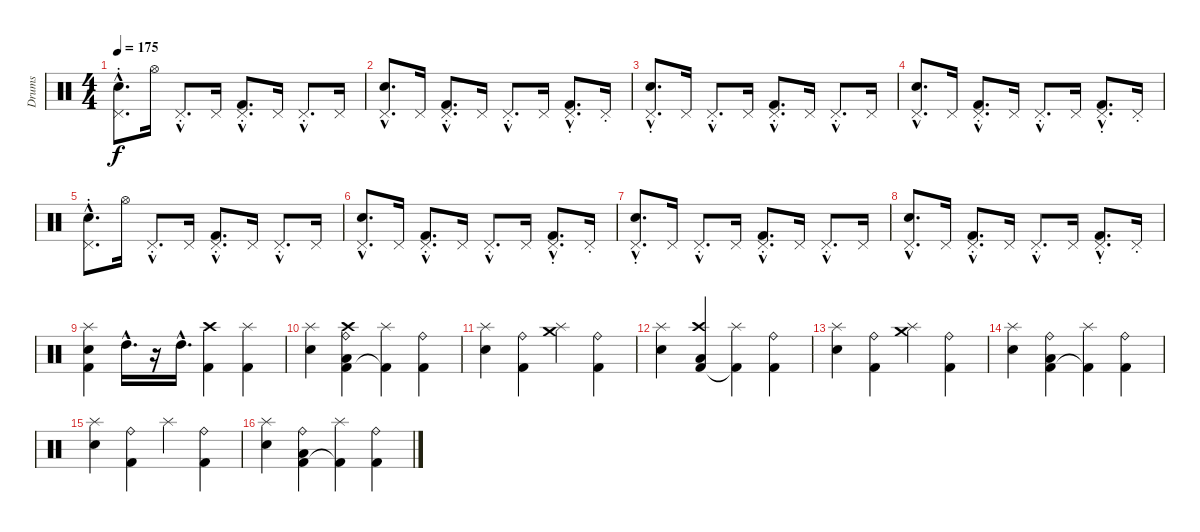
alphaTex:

\track ("Drums" "Drums") {instrument percussion}
\staff {score}
\articulation defaults
\ts (4 4)
\tempo 175
\clef neutral
\ks c
("Electric Snare (hit)"{hac} "Pedal Hi-Hat (hit)"{hac st}).8{d dy f} "Hi-Hat (open)".16 "Pedal Hi-Hat (hit)"{hac st}.8{d} "Pedal Hi-Hat (hit)".16 ("Pedal Hi-Hat (hit)"{hac st} "Kick (hit) 2"{hac}).8{d} "Pedal Hi-Hat (hit)".16 "Pedal Hi-Hat (hit)"{hac st}.8{d} "Pedal Hi-Hat (hit)".16 |
("Electric Snare (hit)"{hac} "Pedal Hi-Hat (hit)"{hac}).8{d} "Pedal Hi-Hat (hit)".16 ("Pedal Hi-Hat (hit)"{hac st} "Kick (hit) 2"{hac}).8{d} "Pedal Hi-Hat (hit)".16 "Pedal Hi-Hat (hit)"{hac st}.8{d} "Pedal Hi-Hat (hit)".16 ("Kick (hit) 2"{hac} "Pedal Hi-Hat (hit)"{hac st}).8{d} "Pedal Hi-Hat (hit)"{st}.16 |
("Electric Snare (hit)"{hac} "Pedal Hi-Hat (hit)"{hac st}).8{d} "Pedal Hi-Hat (hit)".16 "Pedal Hi-Hat (hit)"{hac st}.8{d} "Pedal Hi-Hat (hit)".16 ("Pedal Hi-Hat (hit)"{hac st} "Kick (hit) 2"{hac}).8{d} "Pedal Hi-Hat (hit)".16 "Pedal Hi-Hat (hit)"{hac st}.8{d} "Pedal Hi-Hat (hit)".16 |
("Electric Snare (hit)"{hac} "Pedal Hi-Hat (hit)"{hac}).8{d} "Pedal Hi-Hat (hit)".16 ("Pedal Hi-Hat (hit)"{hac st} "Kick (hit) 2"{hac}).8{d} "Pedal Hi-Hat (hit)".16 "Pedal Hi-Hat (hit)"{hac st}.8{d} "Pedal Hi-Hat (hit)".16 ("Kick (hit) 2"{hac} "Pedal Hi-Hat (hit)"{hac st}).8{d} "Pedal Hi-Hat (hit)"{st}.16 |
("Electric Snare (hit)"{hac} "Pedal Hi-Hat (hit)"{hac st}).8{d} "Hi-Hat (open)".16 "Pedal Hi-Hat (hit)"{hac st}.8{d} "Pedal Hi-Hat (hit)".16 ("Pedal Hi-Hat (hit)"{hac st} "Kick (hit) 2"{hac}).8{d} "Pedal Hi-Hat (hit)".16 "Pedal Hi-Hat (hit)"{hac st}.8{d} "Pedal Hi-Hat (hit)".16 |
("Electric Snare (hit)"{hac} "Pedal Hi-Hat (hit)"{hac}).8{d} "Pedal Hi-Hat (hit)".16 ("Pedal Hi-Hat (hit)"{hac st} "Kick (hit) 2"{hac}).8{d} "Pedal Hi-Hat (hit)".16 "Pedal Hi-Hat (hit)"{hac st}.8{d} "Pedal Hi-Hat (hit)".16 ("Kick (hit) 2"{hac} "Pedal Hi-Hat (hit)"{hac st}).8{d} "Pedal Hi-Hat (hit)"{st}.16 |
("Electric Snare (hit)"{hac} "Pedal Hi-Hat (hit)"{hac st}).8{d} "Pedal Hi-Hat (hit)".16 "Pedal Hi-Hat (hit)"{hac st}.8{d} "Pedal Hi-Hat (hit)".16 ("Pedal Hi-Hat (hit)"{hac st} "Kick (hit) 2"{hac}).8{d} "Pedal Hi-Hat (hit)".16 "Pedal Hi-Hat (hit)"{hac st}.8{d} "Pedal Hi-Hat (hit)".16 |
("Electric Snare (hit)"{hac} "Pedal Hi-Hat (hit)"{hac}).8{d} "Pedal Hi-Hat (hit)".16 ("Pedal Hi-Hat (hit)"{hac st} "Kick (hit) 2"{hac}).8{d} "Pedal Hi-Hat (hit)".16 "Pedal Hi-Hat (hit)"{hac st}.8{d} "Pedal Hi-Hat (hit)".16 ("Kick (hit) 2"{hac} "Pedal Hi-Hat (hit)"{hac st}).8{d} "Pedal Hi-Hat (hit)"{st}.16 |
("Electric Snare (hit)" "Splash (hit)" "Kick (hit) 2").4 "High Tom (hit)"{hac}.16{d} r.16 "High Tom (hit)"{hac}.16{d} ("Kick (hit) 2" "Crash high (hit)").4 ("Kick (hit) 2" "Splash (hit)").4 |
("Electric Snare (hit)" "Splash (hit)").4 ("Kick (hit) 2" "Low Tom (hit)" "Ride (bell)" "Crash high (hit)").4 ("Kick (hit) 2"{t} "Splash (hit)").4 ("Kick (hit) 2" "Ride (bell)").4 |
("Electric Snare (hit)" "Splash (hit)").4 ("Kick (hit) 2" "Ride (bell)").4 ("Crash medium (hit)" "Splash (hit)").4 ("Kick (hit) 2" "Ride (bell)").4 |
("Electric Snare (hit)" "Splash (hit)").4 ("Kick (hit) 2" "Low Tom (hit)" "Crash high (hit)").4 ("Kick (hit) 2"{t} "Splash (hit)").4 ("Kick (hit) 2" "Ride (bell)").4 |
("Electric Snare (hit)" "Splash (hit)").4 ("Kick (hit) 2" "Ride (bell)").4 ("Crash medium (hit)" "Splash (hit)").4 ("Kick (hit) 2" "Ride (bell)").4 |
("Electric Snare (hit)" "Splash (hit)").4 ("Kick (hit) 2" "Low Tom (hit)" "Ride (bell)").4 ("Kick (hit) 2"{t} "Splash (hit)").4 ("Kick (hit) 2" "Ride (bell)").4 |
("Electric Snare (hit)" "Splash (hit)").4 ("Kick (hit) 2" "Ride (bell)").4 "Splash (hit)".4 ("Kick (hit) 2" "Ride (bell)").4 |
("Electric Snare (hit)" "Splash (hit)").4 ("Kick (hit) 2" "Low Tom (hit)" "Ride (bell)").4 ("Kick (hit) 2"{t} "Splash (hit)").4 ("Kick (hit) 2" "Ride (bell)").4
